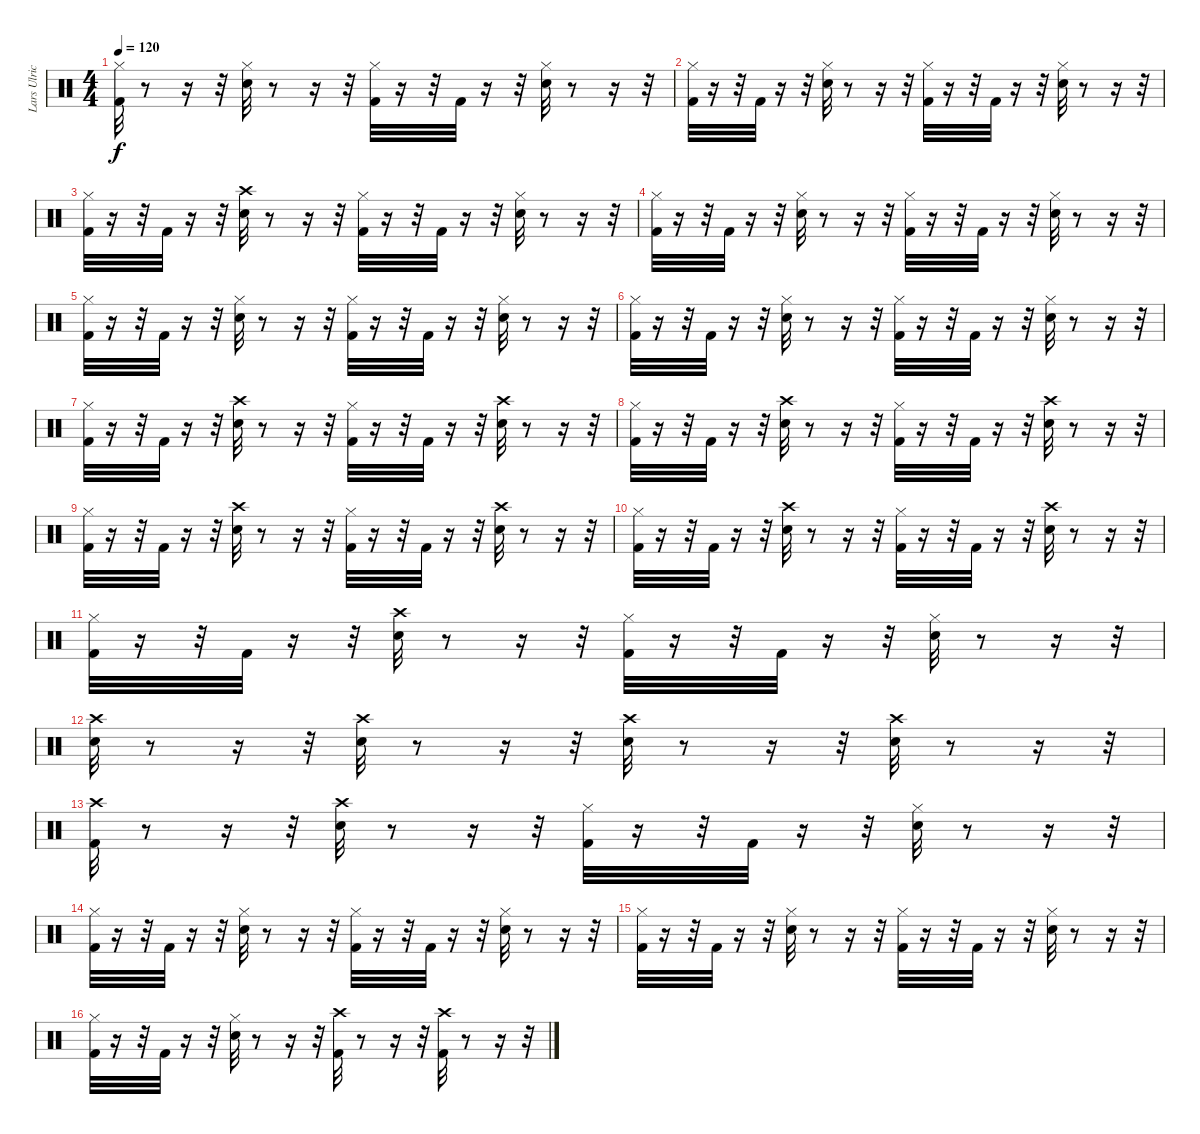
\track ("Lars Ulrich (Drums)" "Lars Ulric") {instrument percussion}
\staff {score}
\articulation defaults
\ts (4 4)
\tempo 120
\clef neutral
\ks c
("Kick (hit) 2" "Hi-Hat (closed)").32{dy f} r.8 r.16 r.32 ("Snare (hit) 2" "Hi-Hat (closed)").32 r.8 r.16 r.32 ("Kick (hit) 2" "Hi-Hat (closed)").32 r.16 r.32 "Kick (hit) 2".32 r.16 r.32 ("Hi-Hat (closed)" "Snare (hit) 2").32 r.8 r.16 r.32 |
("Kick (hit) 2" "Hi-Hat (closed)").32 r.16 r.32 "Kick (hit) 2".32 r.16 r.32 ("Snare (hit) 2" "Hi-Hat (closed)").32 r.8 r.16 r.32 ("Kick (hit) 2" "Hi-Hat (closed)").32 r.16 r.32 "Kick (hit) 2".32 r.16 r.32 ("Snare (hit) 2" "Hi-Hat (closed)").32 r.8 r.16 r.32 |
("Kick (hit) 2" "Hi-Hat (closed)").32 r.16 r.32 "Kick (hit) 2".32 r.16 r.32 ("Crash high (hit)" "Snare (hit) 2").32 r.8 r.16 r.32 ("Kick (hit) 2" "Hi-Hat (closed)").32 r.16 r.32 "Kick (hit) 2".32 r.16 r.32 ("Snare (hit) 2" "Hi-Hat (closed)").32 r.8 r.16 r.32 |
("Kick (hit) 2" "Hi-Hat (closed)").32 r.16 r.32 "Kick (hit) 2".32 r.16 r.32 ("Snare (hit) 2" "Hi-Hat (closed)").32 r.8 r.16 r.32 ("Kick (hit) 2" "Hi-Hat (closed)").32 r.16 r.32 "Kick (hit) 2".32 r.16 r.32 ("Snare (hit) 2" "Hi-Hat (closed)").32 r.8 r.16 r.32 |
("Kick (hit) 2" "Hi-Hat (closed)").32 r.16 r.32 "Kick (hit) 2".32 r.16 r.32 ("Snare (hit) 2" "Hi-Hat (closed)").32 r.8 r.16 r.32 ("Kick (hit) 2" "Hi-Hat (closed)").32 r.16 r.32 "Kick (hit) 2".32 r.16 r.32 ("Snare (hit) 2" "Hi-Hat (closed)").32 r.8 r.16 r.32 |
("Kick (hit) 2" "Hi-Hat (closed)").32 r.16 r.32 "Kick (hit) 2".32 r.16 r.32 ("Snare (hit) 2" "Hi-Hat (closed)").32 r.8 r.16 r.32 ("Kick (hit) 2" "Hi-Hat (closed)").32 r.16 r.32 "Kick (hit) 2".32 r.16 r.32 ("Snare (hit) 2" "Hi-Hat (closed)").32 r.8 r.16 r.32 |
("Kick (hit) 2" "Hi-Hat (closed)").32 r.16 r.32 "Kick (hit) 2".32 r.16 r.32 ("Crash high (hit)" "Snare (hit) 2").32 r.8 r.16 r.32 ("Kick (hit) 2" "Hi-Hat (closed)").32 r.16 r.32 "Kick (hit) 2".32 r.16 r.32 ("Crash high (hit)" "Snare (hit) 2").32 r.8 r.16 r.32 |
("Kick (hit) 2" "Hi-Hat (closed)").32 r.16 r.32 "Kick (hit) 2".32 r.16 r.32 ("Crash high (hit)" "Snare (hit) 2").32 r.8 r.16 r.32 ("Kick (hit) 2" "Hi-Hat (closed)").32 r.16 r.32 "Kick (hit) 2".32 r.16 r.32 ("Crash high (hit)" "Snare (hit) 2").32 r.8 r.16 r.32 |
("Kick (hit) 2" "Hi-Hat (closed)").32 r.16 r.32 "Kick (hit) 2".32 r.16 r.32 ("Crash high (hit)" "Snare (hit) 2").32 r.8 r.16 r.32 ("Kick (hit) 2" "Hi-Hat (closed)").32 r.16 r.32 "Kick (hit) 2".32 r.16 r.32 ("Crash high (hit)" "Snare (hit) 2").32 r.8 r.16 r.32 |
("Kick (hit) 2" "Hi-Hat (closed)").32 r.16 r.32 "Kick (hit) 2".32 r.16 r.32 ("Crash high (hit)" "Snare (hit) 2").32 r.8 r.16 r.32 ("Kick (hit) 2" "Hi-Hat (closed)").32 r.16 r.32 "Kick (hit) 2".32 r.16 r.32 ("Crash high (hit)" "Snare (hit) 2").32 r.8 r.16 r.32 |
("Kick (hit) 2" "Hi-Hat (closed)").32 r.16 r.32 "Kick (hit) 2".32 r.16 r.32 ("Crash high (hit)" "Snare (hit) 2").32 r.8 r.16 r.32 ("Kick (hit) 2" "Hi-Hat (closed)").32 r.16 r.32 "Kick (hit) 2".32 r.16 r.32 ("Hi-Hat (closed)" "Snare (hit) 2").32 r.8 r.16 r.32 |
("Crash high (hit)" "Snare (hit) 2").32 r.8 r.16 r.32 ("Crash high (hit)" "Snare (hit) 2").32 r.8 r.16 r.32 ("Crash high (hit)" "Snare (hit) 2").32 r.8 r.16 r.32 ("Crash high (hit)" "Snare (hit) 2").32 r.8 r.16 r.32 |
("Kick (hit) 2" "Crash high (hit)").32 r.8 r.16 r.32 ("Snare (hit) 2" "Crash high (hit)").32 r.8 r.16 r.32 ("Hi-Hat (closed)" "Kick (hit) 2").32 r.16 r.32 "Kick (hit) 2".32 r.16 r.32 ("Snare (hit) 2" "Hi-Hat (closed)").32 r.8 r.16 r.32 |
("Kick (hit) 2" "Hi-Hat (closed)").32 r.16 r.32 "Kick (hit) 2".32 r.16 r.32 ("Snare (hit) 2" "Hi-Hat (closed)").32 r.8 r.16 r.32 ("Kick (hit) 2" "Hi-Hat (closed)").32 r.16 r.32 "Kick (hit) 2".32 r.16 r.32 ("Snare (hit) 2" "Hi-Hat (closed)").32 r.8 r.16 r.32 |
("Kick (hit) 2" "Hi-Hat (closed)").32 r.16 r.32 "Kick (hit) 2".32 r.16 r.32 ("Snare (hit) 2" "Hi-Hat (closed)").32 r.8 r.16 r.32 ("Kick (hit) 2" "Hi-Hat (closed)").32 r.16 r.32 "Kick (hit) 2".32 r.16 r.32 ("Snare (hit) 2" "Hi-Hat (closed)").32 r.8 r.16 r.32 |
("Kick (hit) 2" "Hi-Hat (closed)").32 r.16 r.32 "Kick (hit) 2".32 r.16 r.32 ("Snare (hit) 2" "Hi-Hat (closed)").32 r.8 r.16 r.32 ("Crash high (hit)" "Kick (hit) 2").32 r.8 r.16 r.32 ("Crash high (hit)" "Kick (hit) 2").32 r.8 r.16 r.32
